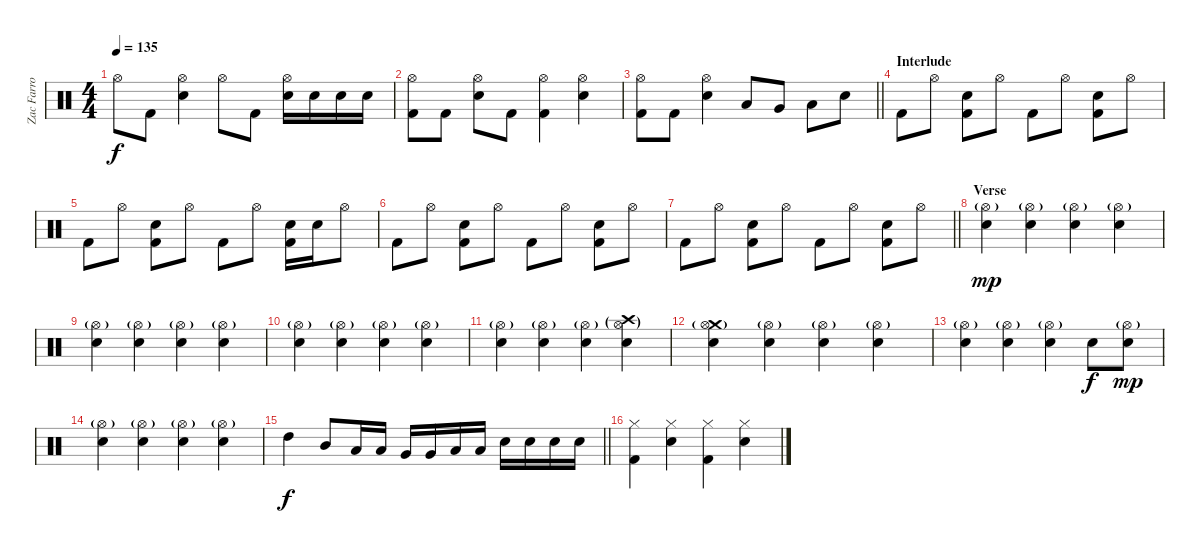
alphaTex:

\track ("Zac Farro" "Zac Farro") {instrument percussion}
\staff {score}
\articulation defaults
\ts (4 4)
\tempo 135
\clef neutral
\ks c "Hi-Hat (open)".8{dy f} "Kick (hit) 2".8
("Hi-Hat (open)" "Electric Snare (hit)").4 "Hi-Hat (open)".8 "Kick (hit) 2".8 ("Hi-Hat (open)" "Electric Snare (hit)").16 "Electric Snare (hit)".16 "Electric Snare (hit)".16 "Electric Snare (hit)".16 |
("Hi-Hat (open)" "Kick (hit) 2").8 "Kick (hit) 2".8 ("Hi-Hat (open)" "Electric Snare (hit)").8 "Kick (hit) 2".8 ("Hi-Hat (open)" "Kick (hit) 2").4 ("Hi-Hat (open)" "Electric Snare (hit)").4 |
\barLineRight lightlight
("Hi-Hat (open)" "Kick (hit) 2").8 "Kick (hit) 2".8 ("Hi-Hat (open)" "Electric Snare (hit)").4 "Low Tom (hit)".8 "Very Low Tom (hit)".8 "Low Floor Tom (hit)".8 "Electric Snare (hit)".8 |
\section ("" "Interlude")
"Kick (hit) 2".8 "Hi-Hat (open)".8 ("Electric Snare (hit)" "Kick (hit) 2").8 "Hi-Hat (open)".8 "Kick (hit) 2".8 "Hi-Hat (open)".8 ("Electric Snare (hit)" "Kick (hit) 2").8 "Hi-Hat (open)".8 |
"Kick (hit) 2".8 "Hi-Hat (open)".8 ("Electric Snare (hit)" "Kick (hit) 2").8 "Hi-Hat (open)".8 "Kick (hit) 2".8 "Hi-Hat (open)".8 ("Electric Snare (hit)" "Kick (hit) 2").16 "Electric Snare (hit)".16 "Hi-Hat (open)".8 |
"Kick (hit) 2".8 "Hi-Hat (open)".8 ("Electric Snare (hit)" "Kick (hit) 2").8 "Hi-Hat (open)".8 "Kick (hit) 2".8 "Hi-Hat (open)".8 ("Electric Snare (hit)" "Kick (hit) 2").8 "Hi-Hat (open)".8 |
\barLineRight lightlight "Kick (hit) 2".8 "Hi-Hat (open)".8
("Electric Snare (hit)" "Kick (hit) 2").8 "Hi-Hat (open)".8 "Kick (hit) 2".8 "Hi-Hat (open)".8 ("Electric Snare (hit)" "Kick (hit) 2").8 "Hi-Hat (open)".8 |
\section ("" "Verse")
("Hi-Hat (open)"{g} "Electric Snare (hit)").4{dy mp} ("Hi-Hat (open)"{g} "Electric Snare (hit)").4 ("Hi-Hat (open)"{g} "Electric Snare (hit)").4 ("Hi-Hat (open)"{g} "Electric Snare (hit)").4 |
("Hi-Hat (open)"{g} "Electric Snare (hit)").4 ("Hi-Hat (open)"{g} "Electric Snare (hit)").4 ("Hi-Hat (open)"{g} "Electric Snare (hit)").4 ("Hi-Hat (open)"{g} "Electric Snare (hit)").4 |
("Hi-Hat (open)"{g} "Electric Snare (hit)").4 ("Hi-Hat (open)"{g} "Electric Snare (hit)").4 ("Hi-Hat (open)"{g} "Electric Snare (hit)").4 ("Hi-Hat (open)"{g} "Electric Snare (hit)").4 |
("Hi-Hat (open)"{g} "Electric Snare (hit)").4 ("Hi-Hat (open)"{g} "Electric Snare (hit)").4 ("Hi-Hat (open)"{g} "Electric Snare (hit)").4 ("Crash high (hit)"{g} "Hi-Hat (open)"{g} "Electric Snare (hit)").4 |
("Crash medium (hit)" "Hi-Hat (open)"{g} "Electric Snare (hit)").4 ("Hi-Hat (open)"{g} "Electric Snare (hit)").4 ("Hi-Hat (open)"{g} "Electric Snare (hit)").4 ("Hi-Hat (open)"{g} "Electric Snare (hit)").4 |
("Hi-Hat (open)"{g} "Electric Snare (hit)").4 ("Hi-Hat (open)"{g} "Electric Snare (hit)").4 ("Hi-Hat (open)"{g} "Electric Snare (hit)").4 "Electric Snare (hit)".8{dy f} ("Hi-Hat (open)"{g} "Electric Snare (hit)").8{dy mp} |
("Hi-Hat (open)"{g} "Electric Snare (hit)").4 ("Hi-Hat (open)"{g} "Electric Snare (hit)").4 ("Hi-Hat (open)"{g} "Electric Snare (hit)").4 ("Hi-Hat (open)"{g} "Electric Snare (hit)").4 |
\barLineRight lightlight "High Tom (hit)".4{dy f} "Mid Tom (hit)".8 "Low Tom (hit)".16 "Low Tom (hit)".16 "Very Low Tom (hit)".16 "Very Low Tom (hit)".16 "Low Floor Tom (hit)".16 "Low Floor Tom (hit)".16 "Electric Snare (hit)".16 "Electric Snare (hit)".16 "Electric Snare (hit)".16 "Electric Snare (hit)".16
|
("Hi-Hat (closed)" "Kick (hit) 2").4 ("Hi-Hat (closed)" "Electric Snare (hit)").4 ("Hi-Hat (closed)" "Kick (hit) 2").4 ("Hi-Hat (closed)" "Electric Snare (hit)").4
